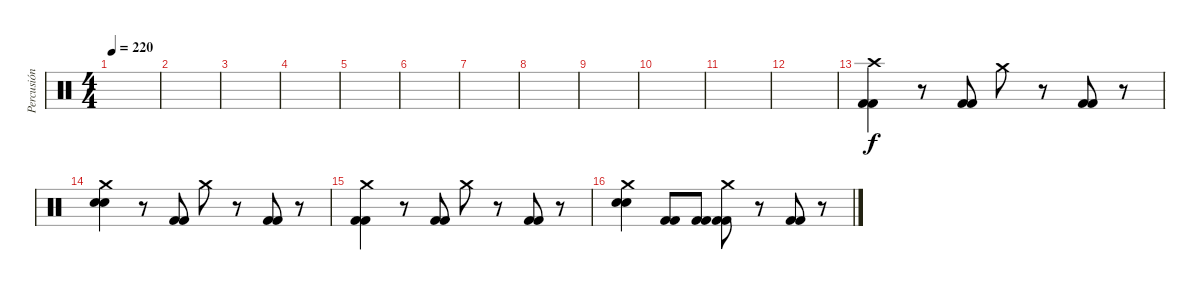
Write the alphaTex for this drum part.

\track ("Percusión" "Percusión") {instrument percussion}
\staff {score}
\articulation defaults
\ts (4 4)
\tempo 220
\clef neutral
\ks c
|
|
|
|
|
|
|
|
|
|
|
|
("Kick (hit) 2" "Kick (hit) 2" "Crash high (hit)").4 r.8 ("Kick (hit) 2" "Kick (hit) 2").8 "Crash medium (hit)".8 r.8 ("Kick (hit) 2" "Kick (hit) 2").8 r.8 |
("Electric Snare (hit)" "Electric Snare (hit)" "Crash medium (hit)").4 r.8 ("Kick (hit) 2" "Kick (hit) 2").8 "Crash medium (hit)".8 r.8 ("Kick (hit) 2" "Kick (hit) 2").8 r.8 |
("Kick (hit) 2" "Kick (hit) 2" "Crash medium (hit)").4 r.8 ("Kick (hit) 2" "Kick (hit) 2").8 "Crash medium (hit)".8 r.8 ("Kick (hit) 2" "Kick (hit) 2").8 r.8 |
("Electric Snare (hit)" "Electric Snare (hit)" "Crash medium (hit)").4 ("Kick (hit) 2" "Kick (hit) 2").8 ("Kick (hit) 2" "Kick (hit) 2").8 ("Kick (hit) 2" "Kick (hit) 2" "Crash medium (hit)").8 r.8 ("Kick (hit) 2" "Kick (hit) 2").8 r.8
